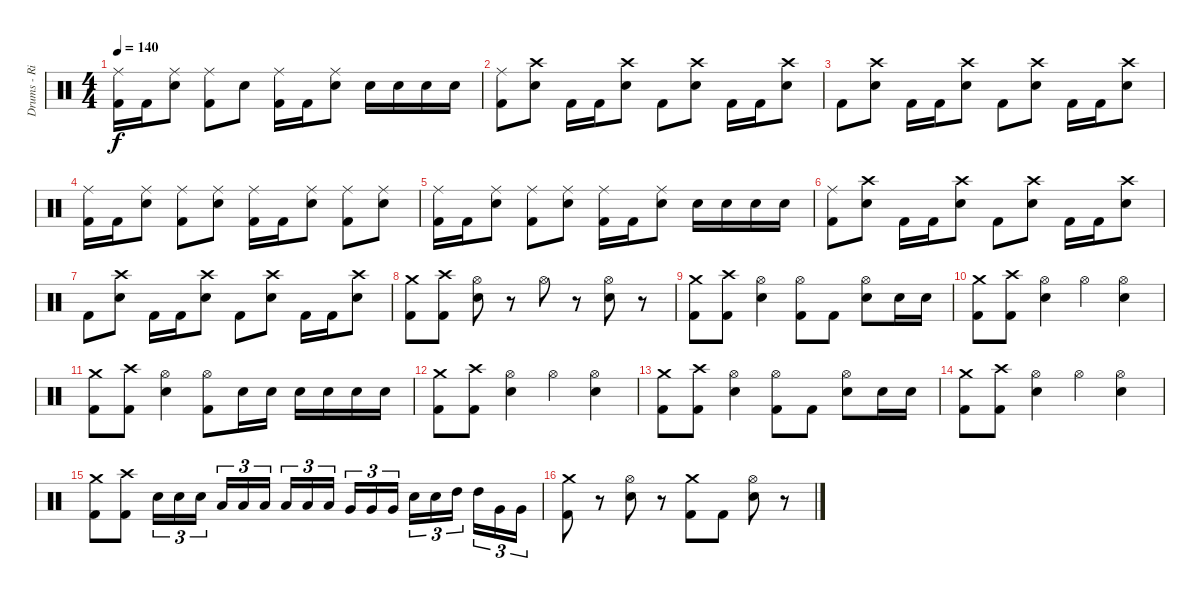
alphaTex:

\track ("Drums - Riley" "Drums - Ri") {instrument percussion}
\staff {score}
\articulation defaults
\ts (4 4)
\tempo 140
\clef neutral
\ks c
("Kick (hit) 2" "Ride (middle)").16{dy f} "Kick (hit) 2".16 ("Electric Snare (hit)" "Ride (middle)").8 ("Kick (hit) 2" "Ride (middle)").8 "Electric Snare (hit)".8 ("Kick (hit) 2" "Ride (middle)").16 "Kick (hit) 2".16 ("Electric Snare (hit)" "Ride (middle)").8 "Electric Snare (hit)".16 "Electric Snare (hit)".16 "Electric Snare (hit)".16 "Electric Snare (hit)".16 |
("Kick (hit) 2" "Ride (middle)").8 ("Electric Snare (hit)" "Crash high (hit)").8 "Kick (hit) 2".16 "Kick (hit) 2".16 ("Electric Snare (hit)" "Crash high (hit)").8 "Kick (hit) 2".8 ("Electric Snare (hit)" "Crash high (hit)").8 "Kick (hit) 2".16 "Kick (hit) 2".16 ("Electric Snare (hit)" "Crash high (hit)").8 |
"Kick (hit) 2".8 ("Electric Snare (hit)" "Crash high (hit)").8 "Kick (hit) 2".16 "Kick (hit) 2".16 ("Electric Snare (hit)" "Crash high (hit)").8 "Kick (hit) 2".8 ("Electric Snare (hit)" "Crash high (hit)").8 "Kick (hit) 2".16 "Kick (hit) 2".16 ("Electric Snare (hit)" "Crash high (hit)").8 |
("Kick (hit) 2" "Ride (middle)").16 "Kick (hit) 2".16 ("Electric Snare (hit)" "Ride (middle)").8 ("Kick (hit) 2" "Ride (middle)").8 ("Electric Snare (hit)" "Ride (middle)").8 ("Kick (hit) 2" "Ride (middle)").16 "Kick (hit) 2".16 ("Electric Snare (hit)" "Ride (middle)").8 ("Kick (hit) 2" "Ride (middle)").8 ("Electric Snare (hit)" "Ride (middle)").8 |
("Kick (hit) 2" "Ride (middle)").16 "Kick (hit) 2".16 ("Electric Snare (hit)" "Ride (middle)").8 ("Kick (hit) 2" "Ride (middle)").8 ("Electric Snare (hit)" "Ride (middle)").8 ("Kick (hit) 2" "Ride (middle)").16 "Kick (hit) 2".16 ("Electric Snare (hit)" "Ride (middle)").8 "Electric Snare (hit)".16 "Electric Snare (hit)".16 "Electric Snare (hit)".16 "Electric Snare (hit)".16 |
("Kick (hit) 2" "Ride (middle)").8 ("Electric Snare (hit)" "Crash high (hit)").8 "Kick (hit) 2".16 "Kick (hit) 2".16 ("Electric Snare (hit)" "Crash high (hit)").8 "Kick (hit) 2".8 ("Electric Snare (hit)" "Crash high (hit)").8 "Kick (hit) 2".16 "Kick (hit) 2".16 ("Electric Snare (hit)" "Crash high (hit)").8 |
"Kick (hit) 2".8 ("Electric Snare (hit)" "Crash high (hit)").8 "Kick (hit) 2".16 "Kick (hit) 2".16 ("Electric Snare (hit)" "Crash high (hit)").8 "Kick (hit) 2".8 ("Electric Snare (hit)" "Crash high (hit)").8 "Kick (hit) 2".16 "Kick (hit) 2".16 ("Electric Snare (hit)" "Crash high (hit)").8 |
("Kick (hit) 2" "Crash medium (hit)").8 ("Kick (hit) 2" "Crash high (hit)").8 ("Electric Snare (hit)" "Hi-Hat (open)").8 r.8 "Hi-Hat (open)".8 r.8 ("Electric Snare (hit)" "Hi-Hat (open)").8 r.8 |
("Kick (hit) 2" "Crash medium (hit)").8 ("Kick (hit) 2" "Crash high (hit)").8 ("Electric Snare (hit)" "Hi-Hat (open)").4 ("Kick (hit) 2" "Hi-Hat (open)").8 "Kick (hit) 2".8 ("Electric Snare (hit)" "Hi-Hat (open)").8 "Electric Snare (hit)".16 "Electric Snare (hit)".16 |
("Kick (hit) 2" "Crash medium (hit)").8 ("Kick (hit) 2" "Crash high (hit)").8 ("Electric Snare (hit)" "Hi-Hat (open)").4 "Hi-Hat (open)".4 ("Electric Snare (hit)" "Hi-Hat (open)").4 |
("Kick (hit) 2" "Crash medium (hit)").8 ("Kick (hit) 2" "Crash high (hit)").8 ("Electric Snare (hit)" "Hi-Hat (open)").4 ("Kick (hit) 2" "Hi-Hat (open)").8 "Electric Snare (hit)".16 "Electric Snare (hit)".16 "Electric Snare (hit)".16 "Electric Snare (hit)".16 "Electric Snare (hit)".16 "Electric Snare (hit)".16 |
("Kick (hit) 2" "Crash medium (hit)").8 ("Kick (hit) 2" "Crash high (hit)").8 ("Electric Snare (hit)" "Hi-Hat (open)").4 "Hi-Hat (open)".4 ("Electric Snare (hit)" "Hi-Hat (open)").4 |
("Kick (hit) 2" "Crash medium (hit)").8 ("Kick (hit) 2" "Crash high (hit)").8 ("Electric Snare (hit)" "Hi-Hat (open)").4 ("Kick (hit) 2" "Hi-Hat (open)").8 "Kick (hit) 2".8 ("Electric Snare (hit)" "Hi-Hat (open)").8 "Electric Snare (hit)".16 "Electric Snare (hit)".16 |
("Kick (hit) 2" "Crash medium (hit)").8 ("Kick (hit) 2" "Crash high (hit)").8 ("Electric Snare (hit)" "Hi-Hat (open)").4 "Hi-Hat (open)".4 ("Electric Snare (hit)" "Hi-Hat (open)").4 |
("Kick (hit) 2" "Crash medium (hit)").8 ("Kick (hit) 2" "Crash high (hit)").8 "Electric Snare (hit)".16{tu (3 2)} "Electric Snare (hit)".16{tu (3 2)} "Electric Snare (hit)".16{tu (3 2) beam splitsecondary} "Low Tom (hit)".16{tu (3 2)} "Low Tom (hit)".16{tu (3 2)} "Low Tom (hit)".16{tu (3 2)} "Low Floor Tom (hit)".16{tu (3 2)} "Low Floor Tom (hit)".16{tu (3 2)} "Low Floor Tom (hit)".16{tu (3 2) beam splitsecondary} "Very Low Tom (hit)".16{tu (3 2)} "Very Low Tom (hit)".16{tu (3 2)} "Very Low Tom (hit)".16{tu (3 2)} "Electric Snare (hit)".16{tu (3 2)} "Electric Snare (hit)".16{tu (3 2)} "High Tom (hit)".16{tu (3 2) beam splitsecondary} "High Tom (hit)".16{tu (3 2)} "Very Low Tom (hit)".16{tu (3 2)} "Very Low Tom (hit)".16{tu (3 2)} |
("Kick (hit) 2" "Crash medium (hit)").8 r.8 ("Electric Snare (hit)" "Hi-Hat (open)").8 r.8 ("Kick (hit) 2" "Crash medium (hit)").8 "Kick (hit) 2".8 ("Electric Snare (hit)" "Hi-Hat (open)").8 r.8
